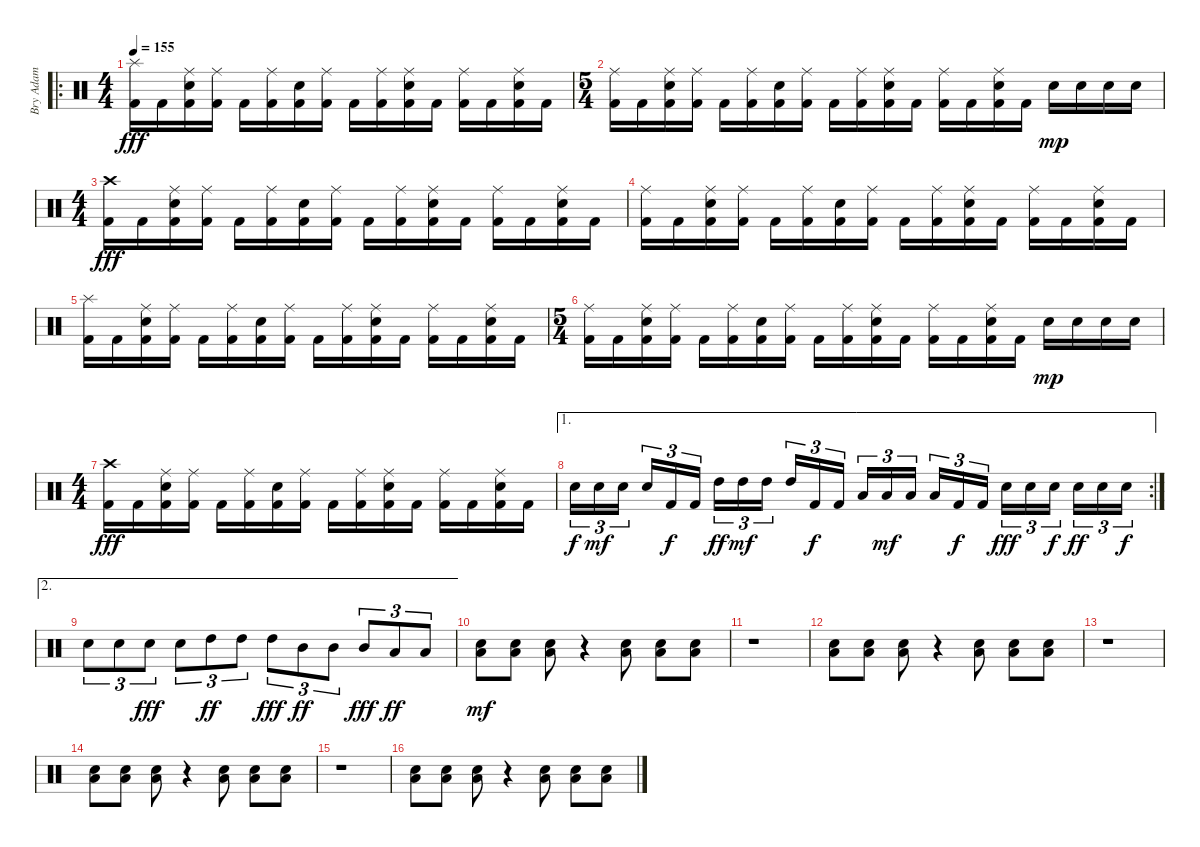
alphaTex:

\track ("Bry Adam " "Bry Adam ") {instrument percussion}
\staff {score}
\articulation defaults
\ro
\ts (4 4)
\tempo 155
\clef neutral
\ks c
("Splash (hit)" "Kick (hit) 2").16{dy fff} "Kick (hit) 2".16 ("Ride (middle)" "Snare (hit) 2" "Kick (hit) 2").16 ("Ride (middle)" "Kick (hit) 2").16 "Kick (hit) 2".16 ("Ride (middle)" "Kick (hit) 2").16 ("Snare (hit) 2" "Kick (hit) 2").16 ("Ride (middle)" "Kick (hit) 2").16 "Kick (hit) 2".16 ("Ride (middle)" "Kick (hit) 2").16 ("Ride (middle)" "Snare (hit) 2" "Kick (hit) 2").16 "Kick (hit) 2".16 ("Ride (middle)" "Kick (hit) 2").16 "Kick (hit) 2".16 ("Ride (middle)" "Snare (hit) 2" "Kick (hit) 2").16 "Kick (hit) 2".16 |
\ts (5 4)
("Ride (middle)" "Kick (hit) 2").16 "Kick (hit) 2".16 ("Ride (middle)" "Snare (hit) 2" "Kick (hit) 2").16 ("Ride (middle)" "Kick (hit) 2").16 "Kick (hit) 2".16 ("Ride (middle)" "Kick (hit) 2").16 ("Snare (hit) 2" "Kick (hit) 2").16 ("Ride (middle)" "Kick (hit) 2").16 "Kick (hit) 2".16 ("Ride (middle)" "Kick (hit) 2").16 ("Ride (middle)" "Snare (hit) 2" "Kick (hit) 2").16 "Kick (hit) 2".16 ("Ride (middle)" "Kick (hit) 2").16 "Kick (hit) 2".16 ("Ride (middle)" "Snare (hit) 2" "Kick (hit) 2").16 "Kick (hit) 2".16 "Snare (hit) 2".16{dy mp} "Snare (hit) 2".16 "Snare (hit) 2".16 "Snare (hit) 2".16 |
\ts (4 4)
("Crash high (hit)" "Kick (hit) 2").16{dy fff} "Kick (hit) 2".16 ("Ride (middle)" "Snare (hit) 2" "Kick (hit) 2").16 ("Ride (middle)" "Kick (hit) 2").16 "Kick (hit) 2".16 ("Ride (middle)" "Kick (hit) 2").16 ("Snare (hit) 2" "Kick (hit) 2").16 ("Ride (middle)" "Kick (hit) 2").16 "Kick (hit) 2".16 ("Ride (middle)" "Kick (hit) 2").16 ("Ride (middle)" "Snare (hit) 2" "Kick (hit) 2").16 "Kick (hit) 2".16 ("Ride (middle)" "Kick (hit) 2").16 "Kick (hit) 2".16 ("Ride (middle)" "Snare (hit) 2" "Kick (hit) 2").16 "Kick (hit) 2".16 |
("Ride (middle)" "Kick (hit) 2").16 "Kick (hit) 2".16 ("Ride (middle)" "Snare (hit) 2" "Kick (hit) 2").16 ("Ride (middle)" "Kick (hit) 2").16 "Kick (hit) 2".16 ("Ride (middle)" "Kick (hit) 2").16 ("Snare (hit) 2" "Kick (hit) 2").16 ("Ride (middle)" "Kick (hit) 2").16 "Kick (hit) 2".16 ("Ride (middle)" "Kick (hit) 2").16 ("Ride (middle)" "Snare (hit) 2" "Kick (hit) 2").16 "Kick (hit) 2".16 ("Ride (middle)" "Kick (hit) 2").16 "Kick (hit) 2".16 ("Ride (middle)" "Snare (hit) 2" "Kick (hit) 2").16 "Kick (hit) 2".16 |
("Splash (hit)" "Kick (hit) 2").16 "Kick (hit) 2".16 ("Ride (middle)" "Snare (hit) 2" "Kick (hit) 2").16 ("Ride (middle)" "Kick (hit) 2").16 "Kick (hit) 2".16 ("Ride (middle)" "Kick (hit) 2").16 ("Snare (hit) 2" "Kick (hit) 2").16 ("Ride (middle)" "Kick (hit) 2").16 "Kick (hit) 2".16 ("Ride (middle)" "Kick (hit) 2").16 ("Ride (middle)" "Snare (hit) 2" "Kick (hit) 2").16 "Kick (hit) 2".16 ("Ride (middle)" "Kick (hit) 2").16 "Kick (hit) 2".16 ("Ride (middle)" "Snare (hit) 2" "Kick (hit) 2").16 "Kick (hit) 2".16 |
\ts (5 4)
("Ride (middle)" "Kick (hit) 2").16 "Kick (hit) 2".16 ("Ride (middle)" "Snare (hit) 2" "Kick (hit) 2").16 ("Ride (middle)" "Kick (hit) 2").16 "Kick (hit) 2".16 ("Ride (middle)" "Kick (hit) 2").16 ("Snare (hit) 2" "Kick (hit) 2").16 ("Ride (middle)" "Kick (hit) 2").16 "Kick (hit) 2".16 ("Ride (middle)" "Kick (hit) 2").16 ("Ride (middle)" "Snare (hit) 2" "Kick (hit) 2").16 "Kick (hit) 2".16 ("Ride (middle)" "Kick (hit) 2").16 "Kick (hit) 2".16 ("Ride (middle)" "Snare (hit) 2" "Kick (hit) 2").16 "Kick (hit) 2".16 "Snare (hit) 2".16{dy mp} "Snare (hit) 2".16 "Snare (hit) 2".16 "Snare (hit) 2".16 |
\ts (4 4)
("Crash high (hit)" "Kick (hit) 2").16{dy fff} "Kick (hit) 2".16 ("Ride (middle)" "Snare (hit) 2" "Kick (hit) 2").16 ("Ride (middle)" "Kick (hit) 2").16 "Kick (hit) 2".16 ("Ride (middle)" "Kick (hit) 2").16 ("Snare (hit) 2" "Kick (hit) 2").16 ("Ride (middle)" "Kick (hit) 2").16 "Kick (hit) 2".16 ("Ride (middle)" "Kick (hit) 2").16 ("Ride (middle)" "Snare (hit) 2" "Kick (hit) 2").16 "Kick (hit) 2".16 ("Ride (middle)" "Kick (hit) 2").16 "Kick (hit) 2".16 ("Ride (middle)" "Snare (hit) 2" "Kick (hit) 2").16 "Kick (hit) 2".16 |
\ae 1
\rc 2 "Snare (hit) 2".16{tu (3 2) dy f} "Snare (hit) 2".16{tu (3 2) dy mf} "Snare (hit) 2".16{tu (3 2)} "Snare (hit) 2".16{tu (3 2)} "Kick (hit) 2".16{tu (3 2) dy f} "Kick (hit) 2".16{tu (3 2)} "High Tom (hit)".16{tu (3 2) dy ff} "High Tom (hit)".16{tu (3 2) dy mf} "High Tom (hit)".16{tu (3 2)} "High Tom (hit)".16{tu (3 2)} "Kick (hit) 2".16{tu (3 2) dy f} "Kick (hit) 2".16{tu (3 2)} "Low Tom (hit)".16{tu (3 2)} "Low Tom (hit)".16{tu (3 2) dy mf} "Low Tom (hit)".16{tu (3 2)} "Low Tom (hit)".16{tu (3 2)} "Kick (hit) 2".16{tu (3 2) dy f} "Kick (hit) 2".16{tu (3 2)} "Snare (hit) 2".16{tu (3 2) dy fff} "Snare (hit) 2".16{tu (3 2)} "Snare (hit) 2".16{tu (3 2) dy f} "Snare (hit) 2".16{tu (3 2) dy ff} "Snare (hit) 2".16{tu (3 2)} "Snare (hit) 2".16{tu (3 2) dy f}
|
\ae 2 "Snare (hit) 2".8{tu (3 2)} "Snare (hit) 2".8{tu (3 2)} "Snare (hit) 2".8{tu (3 2) dy fff} "Snare (hit) 2".8{tu (3 2)} "High Tom (hit)".8{tu (3 2) dy ff} "High Tom (hit)".8{tu (3 2)} "High Tom (hit)".8{tu (3 2) dy fff} "Mid Tom (hit)".8{tu (3 2) dy ff} "Mid Tom (hit)".8{tu (3 2)} "Mid Tom (hit)".8{tu (3 2) dy fff} "Low Tom (hit)".8{tu (3 2) dy ff} "Low Tom (hit)".8{tu (3 2)}
|
("Low Tom (hit)" "Snare (hit) 2").8{dy mf} ("Low Tom (hit)" "Snare (hit) 2").8 ("Low Tom (hit)" "Snare (hit) 2").8 r.4 ("Low Tom (hit)" "Snare (hit) 2").8 ("Low Tom (hit)" "Snare (hit) 2").8 ("Low Tom (hit)" "Snare (hit) 2").8 |
r.1 |
("Low Tom (hit)" "Snare (hit) 2").8 ("Low Tom (hit)" "Snare (hit) 2").8 ("Low Tom (hit)" "Snare (hit) 2").8 r.4 ("Low Tom (hit)" "Snare (hit) 2").8 ("Low Tom (hit)" "Snare (hit) 2").8 ("Low Tom (hit)" "Snare (hit) 2").8 |
r.1 |
("Low Tom (hit)" "Snare (hit) 2").8 ("Low Tom (hit)" "Snare (hit) 2").8 ("Low Tom (hit)" "Snare (hit) 2").8 r.4 ("Low Tom (hit)" "Snare (hit) 2").8 ("Low Tom (hit)" "Snare (hit) 2").8 ("Low Tom (hit)" "Snare (hit) 2").8 |
r.1 |
("Low Tom (hit)" "Snare (hit) 2").8 ("Low Tom (hit)" "Snare (hit) 2").8 ("Low Tom (hit)" "Snare (hit) 2").8 r.4 ("Low Tom (hit)" "Snare (hit) 2").8 ("Low Tom (hit)" "Snare (hit) 2").8 ("Low Tom (hit)" "Snare (hit) 2").8
